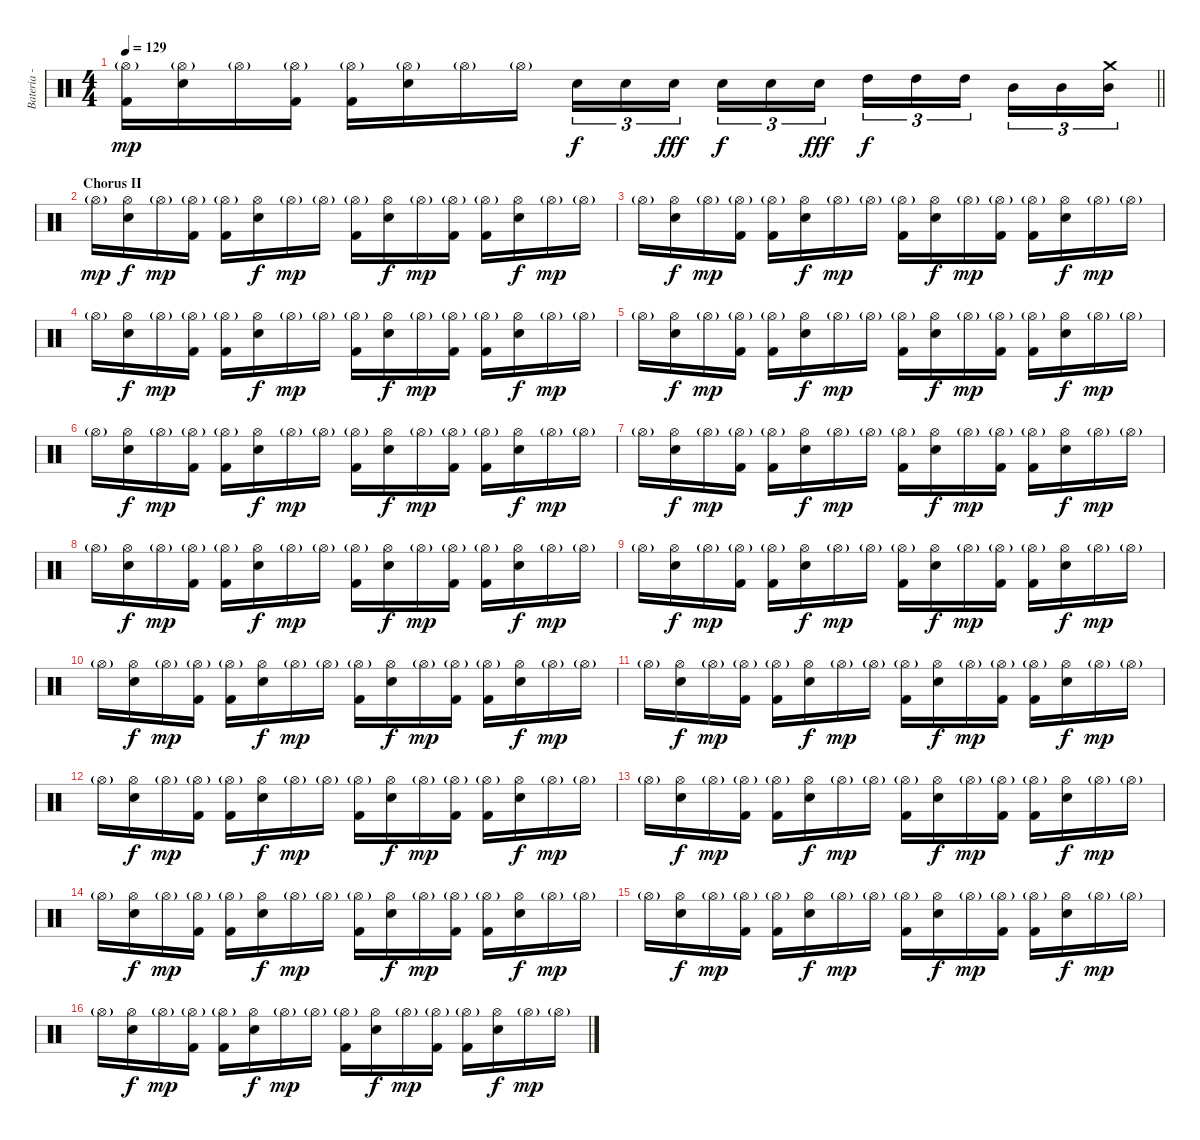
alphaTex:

\track ("Bateria - Larzon" "Bateria - ") {instrument percussion}
\staff {score}
\articulation defaults
\ts (4 4)
\tempo 129
\clef neutral
\barLineRight lightlight
\ks c
("Kick (hit) 2" "Hi-Hat (open)"{g}).16{dy mp} ("Electric Snare (hit)" "Hi-Hat (open)"{g}).16 "Hi-Hat (open)"{g}.16 ("Kick (hit) 2" "Hi-Hat (open)"{g}).16 ("Kick (hit) 2" "Hi-Hat (open)"{g}).16 ("Electric Snare (hit)" "Hi-Hat (open)"{g}).16 "Hi-Hat (open)"{g}.16 "Hi-Hat (open)"{g}.16 "Electric Snare (hit)".16{tu (3 2) dy f} "Electric Snare (hit)".16{tu (3 2)} "Electric Snare (hit)".16{tu (3 2) dy fff} "Electric Snare (hit)".16{tu (3 2) dy f} "Electric Snare (hit)".16{tu (3 2)} "Electric Snare (hit)".16{tu (3 2) dy fff} "High Tom (hit)".16{tu (3 2) dy f} "High Tom (hit)".16{tu (3 2)} "High Tom (hit)".16{tu (3 2)} "Mid Tom (hit)".16{tu (3 2)} "Mid Tom (hit)".16{tu (3 2)} ("Crash medium (hit)" "Mid Tom (hit)").16{tu (3 2)} |
\section ("" "Chorus II")
"Hi-Hat (open)"{g}.16{dy mp} ("Electric Snare (hit)" "Hi-Hat (open)").16{dy f} "Hi-Hat (open)"{g}.16{dy mp} ("Kick (hit) 2" "Hi-Hat (open)"{g}).16 ("Kick (hit) 2" "Hi-Hat (open)"{g}).16 ("Electric Snare (hit)" "Hi-Hat (open)").16{dy f} "Hi-Hat (open)"{g}.16{dy mp} "Hi-Hat (open)"{g}.16 ("Kick (hit) 2" "Hi-Hat (open)"{g}).16 ("Electric Snare (hit)" "Hi-Hat (open)").16{dy f} "Hi-Hat (open)"{g}.16{dy mp} ("Kick (hit) 2" "Hi-Hat (open)"{g}).16 ("Kick (hit) 2" "Hi-Hat (open)"{g}).16 ("Electric Snare (hit)" "Hi-Hat (open)").16{dy f} "Hi-Hat (open)"{g}.16{dy mp} "Hi-Hat (open)"{g}.16 |
"Hi-Hat (open)"{g}.16 ("Electric Snare (hit)" "Hi-Hat (open)").16{dy f} "Hi-Hat (open)"{g}.16{dy mp} ("Kick (hit) 2" "Hi-Hat (open)"{g}).16 ("Kick (hit) 2" "Hi-Hat (open)"{g}).16 ("Electric Snare (hit)" "Hi-Hat (open)").16{dy f} "Hi-Hat (open)"{g}.16{dy mp} "Hi-Hat (open)"{g}.16 ("Kick (hit) 2" "Hi-Hat (open)"{g}).16 ("Electric Snare (hit)" "Hi-Hat (open)").16{dy f} "Hi-Hat (open)"{g}.16{dy mp} ("Kick (hit) 2" "Hi-Hat (open)"{g}).16 ("Kick (hit) 2" "Hi-Hat (open)"{g}).16 ("Electric Snare (hit)" "Hi-Hat (open)").16{dy f} "Hi-Hat (open)"{g}.16{dy mp} "Hi-Hat (open)"{g}.16 |
"Hi-Hat (open)"{g}.16 ("Electric Snare (hit)" "Hi-Hat (open)").16{dy f} "Hi-Hat (open)"{g}.16{dy mp} ("Kick (hit) 2" "Hi-Hat (open)"{g}).16 ("Kick (hit) 2" "Hi-Hat (open)"{g}).16 ("Electric Snare (hit)" "Hi-Hat (open)").16{dy f} "Hi-Hat (open)"{g}.16{dy mp} "Hi-Hat (open)"{g}.16 ("Kick (hit) 2" "Hi-Hat (open)"{g}).16 ("Electric Snare (hit)" "Hi-Hat (open)").16{dy f} "Hi-Hat (open)"{g}.16{dy mp} ("Kick (hit) 2" "Hi-Hat (open)"{g}).16 ("Kick (hit) 2" "Hi-Hat (open)"{g}).16 ("Electric Snare (hit)" "Hi-Hat (open)").16{dy f} "Hi-Hat (open)"{g}.16{dy mp} "Hi-Hat (open)"{g}.16 |
"Hi-Hat (open)"{g}.16 ("Electric Snare (hit)" "Hi-Hat (open)").16{dy f} "Hi-Hat (open)"{g}.16{dy mp} ("Kick (hit) 2" "Hi-Hat (open)"{g}).16 ("Kick (hit) 2" "Hi-Hat (open)"{g}).16 ("Electric Snare (hit)" "Hi-Hat (open)").16{dy f} "Hi-Hat (open)"{g}.16{dy mp} "Hi-Hat (open)"{g}.16 ("Kick (hit) 2" "Hi-Hat (open)"{g}).16 ("Electric Snare (hit)" "Hi-Hat (open)").16{dy f} "Hi-Hat (open)"{g}.16{dy mp} ("Kick (hit) 2" "Hi-Hat (open)"{g}).16 ("Kick (hit) 2" "Hi-Hat (open)"{g}).16 ("Electric Snare (hit)" "Hi-Hat (open)").16{dy f} "Hi-Hat (open)"{g}.16{dy mp} "Hi-Hat (open)"{g}.16 |
"Hi-Hat (open)"{g}.16 ("Electric Snare (hit)" "Hi-Hat (open)").16{dy f} "Hi-Hat (open)"{g}.16{dy mp} ("Kick (hit) 2" "Hi-Hat (open)"{g}).16 ("Kick (hit) 2" "Hi-Hat (open)"{g}).16 ("Electric Snare (hit)" "Hi-Hat (open)").16{dy f} "Hi-Hat (open)"{g}.16{dy mp} "Hi-Hat (open)"{g}.16 ("Kick (hit) 2" "Hi-Hat (open)"{g}).16 ("Electric Snare (hit)" "Hi-Hat (open)").16{dy f} "Hi-Hat (open)"{g}.16{dy mp} ("Kick (hit) 2" "Hi-Hat (open)"{g}).16 ("Kick (hit) 2" "Hi-Hat (open)"{g}).16 ("Electric Snare (hit)" "Hi-Hat (open)").16{dy f} "Hi-Hat (open)"{g}.16{dy mp} "Hi-Hat (open)"{g}.16 |
"Hi-Hat (open)"{g}.16 ("Electric Snare (hit)" "Hi-Hat (open)").16{dy f} "Hi-Hat (open)"{g}.16{dy mp} ("Kick (hit) 2" "Hi-Hat (open)"{g}).16 ("Kick (hit) 2" "Hi-Hat (open)"{g}).16 ("Electric Snare (hit)" "Hi-Hat (open)").16{dy f} "Hi-Hat (open)"{g}.16{dy mp} "Hi-Hat (open)"{g}.16 ("Kick (hit) 2" "Hi-Hat (open)"{g}).16 ("Electric Snare (hit)" "Hi-Hat (open)").16{dy f} "Hi-Hat (open)"{g}.16{dy mp} ("Kick (hit) 2" "Hi-Hat (open)"{g}).16 ("Kick (hit) 2" "Hi-Hat (open)"{g}).16 ("Electric Snare (hit)" "Hi-Hat (open)").16{dy f} "Hi-Hat (open)"{g}.16{dy mp} "Hi-Hat (open)"{g}.16 |
"Hi-Hat (open)"{g}.16 ("Electric Snare (hit)" "Hi-Hat (open)").16{dy f} "Hi-Hat (open)"{g}.16{dy mp} ("Kick (hit) 2" "Hi-Hat (open)"{g}).16 ("Kick (hit) 2" "Hi-Hat (open)"{g}).16 ("Electric Snare (hit)" "Hi-Hat (open)").16{dy f} "Hi-Hat (open)"{g}.16{dy mp} "Hi-Hat (open)"{g}.16 ("Kick (hit) 2" "Hi-Hat (open)"{g}).16 ("Electric Snare (hit)" "Hi-Hat (open)").16{dy f} "Hi-Hat (open)"{g}.16{dy mp} ("Kick (hit) 2" "Hi-Hat (open)"{g}).16 ("Kick (hit) 2" "Hi-Hat (open)"{g}).16 ("Electric Snare (hit)" "Hi-Hat (open)").16{dy f} "Hi-Hat (open)"{g}.16{dy mp} "Hi-Hat (open)"{g}.16 |
"Hi-Hat (open)"{g}.16 ("Electric Snare (hit)" "Hi-Hat (open)").16{dy f} "Hi-Hat (open)"{g}.16{dy mp} ("Kick (hit) 2" "Hi-Hat (open)"{g}).16 ("Kick (hit) 2" "Hi-Hat (open)"{g}).16 ("Electric Snare (hit)" "Hi-Hat (open)").16{dy f} "Hi-Hat (open)"{g}.16{dy mp} "Hi-Hat (open)"{g}.16 ("Kick (hit) 2" "Hi-Hat (open)"{g}).16 ("Electric Snare (hit)" "Hi-Hat (open)").16{dy f} "Hi-Hat (open)"{g}.16{dy mp} ("Kick (hit) 2" "Hi-Hat (open)"{g}).16 ("Kick (hit) 2" "Hi-Hat (open)"{g}).16 ("Electric Snare (hit)" "Hi-Hat (open)").16{dy f} "Hi-Hat (open)"{g}.16{dy mp} "Hi-Hat (open)"{g}.16 |
"Hi-Hat (open)"{g}.16 ("Electric Snare (hit)" "Hi-Hat (open)").16{dy f} "Hi-Hat (open)"{g}.16{dy mp} ("Kick (hit) 2" "Hi-Hat (open)"{g}).16 ("Kick (hit) 2" "Hi-Hat (open)"{g}).16 ("Electric Snare (hit)" "Hi-Hat (open)").16{dy f} "Hi-Hat (open)"{g}.16{dy mp} "Hi-Hat (open)"{g}.16 ("Kick (hit) 2" "Hi-Hat (open)"{g}).16 ("Electric Snare (hit)" "Hi-Hat (open)").16{dy f} "Hi-Hat (open)"{g}.16{dy mp} ("Kick (hit) 2" "Hi-Hat (open)"{g}).16 ("Kick (hit) 2" "Hi-Hat (open)"{g}).16 ("Electric Snare (hit)" "Hi-Hat (open)").16{dy f} "Hi-Hat (open)"{g}.16{dy mp} "Hi-Hat (open)"{g}.16 |
"Hi-Hat (open)"{g}.16 ("Electric Snare (hit)" "Hi-Hat (open)").16{dy f} "Hi-Hat (open)"{g}.16{dy mp} ("Kick (hit) 2" "Hi-Hat (open)"{g}).16 ("Kick (hit) 2" "Hi-Hat (open)"{g}).16 ("Electric Snare (hit)" "Hi-Hat (open)").16{dy f} "Hi-Hat (open)"{g}.16{dy mp} "Hi-Hat (open)"{g}.16 ("Kick (hit) 2" "Hi-Hat (open)"{g}).16 ("Electric Snare (hit)" "Hi-Hat (open)").16{dy f} "Hi-Hat (open)"{g}.16{dy mp} ("Kick (hit) 2" "Hi-Hat (open)"{g}).16 ("Kick (hit) 2" "Hi-Hat (open)"{g}).16 ("Electric Snare (hit)" "Hi-Hat (open)").16{dy f} "Hi-Hat (open)"{g}.16{dy mp} "Hi-Hat (open)"{g}.16 |
"Hi-Hat (open)"{g}.16 ("Electric Snare (hit)" "Hi-Hat (open)").16{dy f} "Hi-Hat (open)"{g}.16{dy mp} ("Kick (hit) 2" "Hi-Hat (open)"{g}).16 ("Kick (hit) 2" "Hi-Hat (open)"{g}).16 ("Electric Snare (hit)" "Hi-Hat (open)").16{dy f} "Hi-Hat (open)"{g}.16{dy mp} "Hi-Hat (open)"{g}.16 ("Kick (hit) 2" "Hi-Hat (open)"{g}).16 ("Electric Snare (hit)" "Hi-Hat (open)").16{dy f} "Hi-Hat (open)"{g}.16{dy mp} ("Kick (hit) 2" "Hi-Hat (open)"{g}).16 ("Kick (hit) 2" "Hi-Hat (open)"{g}).16 ("Electric Snare (hit)" "Hi-Hat (open)").16{dy f} "Hi-Hat (open)"{g}.16{dy mp} "Hi-Hat (open)"{g}.16 |
"Hi-Hat (open)"{g}.16 ("Electric Snare (hit)" "Hi-Hat (open)").16{dy f} "Hi-Hat (open)"{g}.16{dy mp} ("Kick (hit) 2" "Hi-Hat (open)"{g}).16 ("Kick (hit) 2" "Hi-Hat (open)"{g}).16 ("Electric Snare (hit)" "Hi-Hat (open)").16{dy f} "Hi-Hat (open)"{g}.16{dy mp} "Hi-Hat (open)"{g}.16 ("Kick (hit) 2" "Hi-Hat (open)"{g}).16 ("Electric Snare (hit)" "Hi-Hat (open)").16{dy f} "Hi-Hat (open)"{g}.16{dy mp} ("Kick (hit) 2" "Hi-Hat (open)"{g}).16 ("Kick (hit) 2" "Hi-Hat (open)"{g}).16 ("Electric Snare (hit)" "Hi-Hat (open)").16{dy f} "Hi-Hat (open)"{g}.16{dy mp} "Hi-Hat (open)"{g}.16 |
"Hi-Hat (open)"{g}.16 ("Electric Snare (hit)" "Hi-Hat (open)").16{dy f} "Hi-Hat (open)"{g}.16{dy mp} ("Kick (hit) 2" "Hi-Hat (open)"{g}).16 ("Kick (hit) 2" "Hi-Hat (open)"{g}).16 ("Electric Snare (hit)" "Hi-Hat (open)").16{dy f} "Hi-Hat (open)"{g}.16{dy mp} "Hi-Hat (open)"{g}.16 ("Kick (hit) 2" "Hi-Hat (open)"{g}).16 ("Electric Snare (hit)" "Hi-Hat (open)").16{dy f} "Hi-Hat (open)"{g}.16{dy mp} ("Kick (hit) 2" "Hi-Hat (open)"{g}).16 ("Kick (hit) 2" "Hi-Hat (open)"{g}).16 ("Electric Snare (hit)" "Hi-Hat (open)").16{dy f} "Hi-Hat (open)"{g}.16{dy mp} "Hi-Hat (open)"{g}.16 |
"Hi-Hat (open)"{g}.16 ("Electric Snare (hit)" "Hi-Hat (open)").16{dy f} "Hi-Hat (open)"{g}.16{dy mp} ("Kick (hit) 2" "Hi-Hat (open)"{g}).16 ("Kick (hit) 2" "Hi-Hat (open)"{g}).16 ("Electric Snare (hit)" "Hi-Hat (open)").16{dy f} "Hi-Hat (open)"{g}.16{dy mp} "Hi-Hat (open)"{g}.16 ("Kick (hit) 2" "Hi-Hat (open)"{g}).16 ("Electric Snare (hit)" "Hi-Hat (open)").16{dy f} "Hi-Hat (open)"{g}.16{dy mp} ("Kick (hit) 2" "Hi-Hat (open)"{g}).16 ("Kick (hit) 2" "Hi-Hat (open)"{g}).16 ("Electric Snare (hit)" "Hi-Hat (open)").16{dy f} "Hi-Hat (open)"{g}.16{dy mp} "Hi-Hat (open)"{g}.16 |
"Hi-Hat (open)"{g}.16 ("Electric Snare (hit)" "Hi-Hat (open)").16{dy f} "Hi-Hat (open)"{g}.16{dy mp} ("Kick (hit) 2" "Hi-Hat (open)"{g}).16 ("Kick (hit) 2" "Hi-Hat (open)"{g}).16 ("Electric Snare (hit)" "Hi-Hat (open)").16{dy f} "Hi-Hat (open)"{g}.16{dy mp} "Hi-Hat (open)"{g}.16 ("Kick (hit) 2" "Hi-Hat (open)"{g}).16 ("Electric Snare (hit)" "Hi-Hat (open)").16{dy f} "Hi-Hat (open)"{g}.16{dy mp} ("Kick (hit) 2" "Hi-Hat (open)"{g}).16 ("Kick (hit) 2" "Hi-Hat (open)"{g}).16 ("Electric Snare (hit)" "Hi-Hat (open)").16{dy f} "Hi-Hat (open)"{g}.16{dy mp} "Hi-Hat (open)"{g}.16
